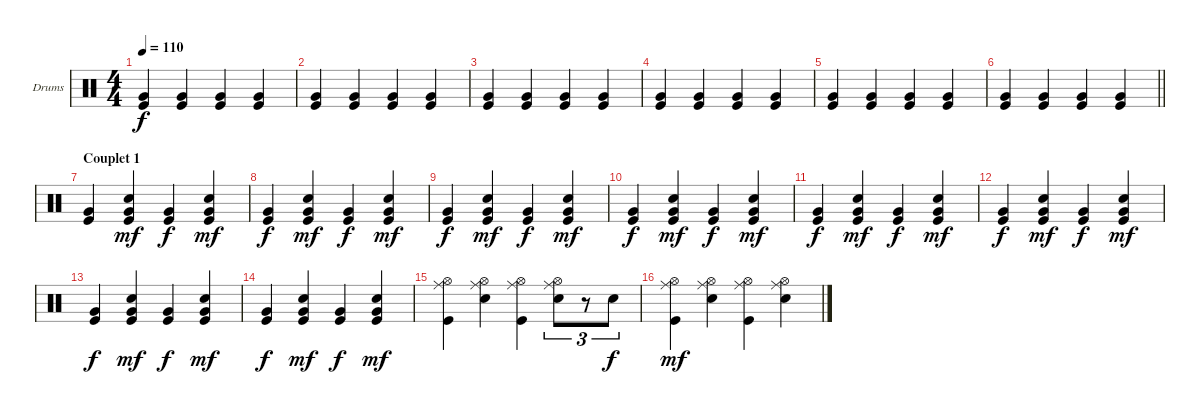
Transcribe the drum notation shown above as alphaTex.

\bracketExtendMode groupsimilarinstruments
\firstSystemTrackNameOrientation horizontal
\otherSystemsTrackNameOrientation horizontal
\chordDiagramsInScore
\track ("Drumkit" "Drums") {instrument percussion}
\staff {score}
\articulation defaults
\ts (4 4)
\beaming (8 2 2 2 2)
\tempo 110
\clef neutral
\ks c
("Kick (hit)" "Very Low Tom (hit)").4{dy f} ("Kick (hit)" "Very Low Tom (hit)").4 ("Kick (hit)" "Very Low Tom (hit)").4 ("Kick (hit)" "Very Low Tom (hit)").4 |
("Kick (hit)" "Very Low Tom (hit)").4 ("Kick (hit)" "Very Low Tom (hit)").4 ("Kick (hit)" "Very Low Tom (hit)").4 ("Kick (hit)" "Very Low Tom (hit)").4 |
("Kick (hit)" "Very Low Tom (hit)").4 ("Kick (hit)" "Very Low Tom (hit)").4 ("Kick (hit)" "Very Low Tom (hit)").4 ("Kick (hit)" "Very Low Tom (hit)").4 |
("Kick (hit)" "Very Low Tom (hit)").4 ("Kick (hit)" "Very Low Tom (hit)").4 ("Kick (hit)" "Very Low Tom (hit)").4 ("Kick (hit)" "Very Low Tom (hit)").4 |
("Kick (hit)" "Very Low Tom (hit)").4 ("Kick (hit)" "Very Low Tom (hit)").4 ("Kick (hit)" "Very Low Tom (hit)").4 ("Kick (hit)" "Very Low Tom (hit)").4 |
\barLineRight lightlight
("Kick (hit)" "Very Low Tom (hit)").4 ("Kick (hit)" "Very Low Tom (hit)").4 ("Kick (hit)" "Very Low Tom (hit)").4 ("Kick (hit)" "Very Low Tom (hit)").4 |
\section ("" "Couplet 1")
("Kick (hit)" "Very Low Tom (hit)").4 ("Snare (hit) 2" "Kick (hit)" "Very Low Tom (hit)").4{dy mf} ("Kick (hit)" "Very Low Tom (hit)").4{dy f} ("Snare (hit) 2" "Kick (hit)" "Very Low Tom (hit)").4{dy mf} |
("Kick (hit)" "Very Low Tom (hit)").4{dy f} ("Snare (hit) 2" "Kick (hit)" "Very Low Tom (hit)").4{dy mf} ("Kick (hit)" "Very Low Tom (hit)").4{dy f} ("Snare (hit) 2" "Kick (hit)" "Very Low Tom (hit)").4{dy mf} |
("Kick (hit)" "Very Low Tom (hit)").4{dy f} ("Snare (hit) 2" "Kick (hit)" "Very Low Tom (hit)").4{dy mf} ("Kick (hit)" "Very Low Tom (hit)").4{dy f} ("Snare (hit) 2" "Kick (hit)" "Very Low Tom (hit)").4{dy mf} |
("Kick (hit)" "Very Low Tom (hit)").4{dy f} ("Snare (hit) 2" "Kick (hit)" "Very Low Tom (hit)").4{dy mf} ("Kick (hit)" "Very Low Tom (hit)").4{dy f} ("Snare (hit) 2" "Kick (hit)" "Very Low Tom (hit)").4{dy mf} |
("Kick (hit)" "Very Low Tom (hit)").4{dy f} ("Snare (hit) 2" "Kick (hit)" "Very Low Tom (hit)").4{dy mf} ("Kick (hit)" "Very Low Tom (hit)").4{dy f} ("Snare (hit) 2" "Kick (hit)" "Very Low Tom (hit)").4{dy mf} |
("Kick (hit)" "Very Low Tom (hit)").4{dy f} ("Snare (hit) 2" "Kick (hit)" "Very Low Tom (hit)").4{dy mf} ("Kick (hit)" "Very Low Tom (hit)").4{dy f} ("Snare (hit) 2" "Kick (hit)" "Very Low Tom (hit)").4{dy mf} |
("Kick (hit)" "Very Low Tom (hit)").4{dy f} ("Snare (hit) 2" "Kick (hit)" "Very Low Tom (hit)").4{dy mf} ("Kick (hit)" "Very Low Tom (hit)").4{dy f} ("Snare (hit) 2" "Kick (hit)" "Very Low Tom (hit)").4{dy mf} |
("Kick (hit)" "Very Low Tom (hit)").4{dy f} ("Snare (hit) 2" "Kick (hit)" "Very Low Tom (hit)").4{dy mf} ("Kick (hit)" "Very Low Tom (hit)").4{dy f} ("Snare (hit) 2" "Kick (hit)" "Very Low Tom (hit)").4{dy mf} |
("Ride (middle)" "Hi-Hat (open)" "Kick (hit)").4 ("Ride (middle)" "Hi-Hat (open)" "Snare (hit) 2").4 ("Ride (middle)" "Hi-Hat (open)" "Kick (hit)").4 ("Ride (middle)" "Hi-Hat (open)" "Snare (hit) 2").8{tu (3 2)} r.8{tu (3 2)} "Snare (hit) 2".8{tu (3 2) dy f} |
("Ride (middle)" "Hi-Hat (open)" "Kick (hit)").4{dy mf} ("Ride (middle)" "Hi-Hat (open)" "Snare (hit) 2").4 ("Ride (middle)" "Hi-Hat (open)" "Kick (hit)").4 ("Ride (middle)" "Hi-Hat (open)" "Snare (hit) 2").4
